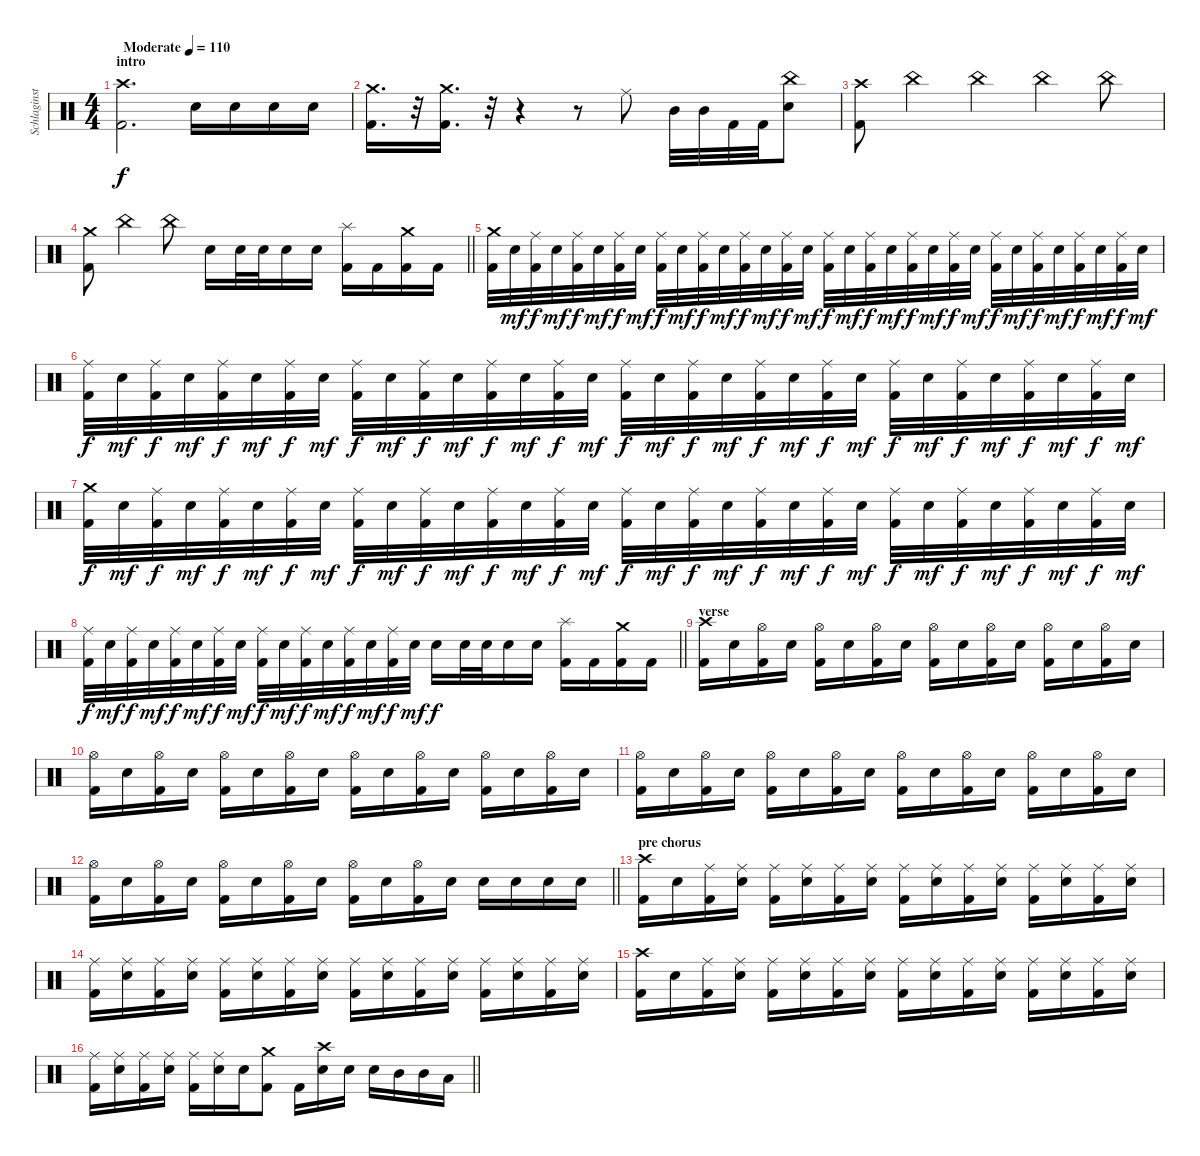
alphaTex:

\track ("Schlaginstrumente - Auswahl" "Schlaginst") {instrument percussion}
\staff {score}
\articulation defaults
\ts (4 4)
\section ("" "intro")
\tempo (110 "Moderate")
\clef neutral
\ks c
("Crash high (hit)" "Kick (hit) 2").2{d dy f} "Electric Snare (hit)".16 "Electric Snare (hit)".16 "Electric Snare (hit)".16 "Electric Snare (hit)".16 |
("Crash medium (hit)" "Kick (hit) 2").16{d} r.32{volume 0} ("Crash medium (hit)" "Kick (hit) 2").16{d volume 16} r.32{volume 0} r.4 r.8 "Ride (middle)".8{volume 16} "Mid Tom (hit)".32 "Mid Tom (hit)".32 "Kick (hit) 2".32 "Kick (hit) 2".32 ("China (hit)" "Electric Snare (hit)").8 |
("Crash high (hit)" "Kick (hit) 2").8 "China (hit)".4 "China (hit)".4 "China (hit)".4 "China (hit)".8 |
\barLineRight lightlight
("Crash medium (hit)" "Kick (hit) 2").8 "China (hit)".4 "China (hit)".8 "Electric Snare (hit)".16 "Electric Snare (hit)".32 "Electric Snare (hit)".32 "Electric Snare (hit)".16 "Electric Snare (hit)".16 ("Splash (hit)" "Kick (hit) 2").16 "Kick (hit) 2".16 ("Crash medium (hit)" "Kick (hit) 2").16 "Kick (hit) 2".16 |
\section ("" "")
("Crash medium (hit)" "Kick (hit) 2").32 "Electric Snare (hit)".32{dy mf} ("Ride (middle)" "Kick (hit) 2").32{dy f} "Electric Snare (hit)".32{dy mf} ("Ride (middle)" "Kick (hit) 2").32{dy f} "Electric Snare (hit)".32{dy mf} ("Ride (middle)" "Kick (hit) 2").32{dy f} "Electric Snare (hit)".32{dy mf} ("Ride (middle)" "Kick (hit) 2").32{dy f} "Electric Snare (hit)".32{dy mf} ("Ride (middle)" "Kick (hit) 2").32{dy f} "Electric Snare (hit)".32{dy mf} ("Ride (middle)" "Kick (hit) 2").32{dy f} "Electric Snare (hit)".32{dy mf} ("Ride (middle)" "Kick (hit) 2").32{dy f} "Electric Snare (hit)".32{dy mf} ("Ride (middle)" "Kick (hit) 2").32{dy f} "Electric Snare (hit)".32{dy mf} ("Ride (middle)" "Kick (hit) 2").32{dy f} "Electric Snare (hit)".32{dy mf} ("Ride (middle)" "Kick (hit) 2").32{dy f} "Electric Snare (hit)".32{dy mf} ("Ride (middle)" "Kick (hit) 2").32{dy f} "Electric Snare (hit)".32{dy mf} ("Ride (middle)" "Kick (hit) 2").32{dy f} "Electric Snare (hit)".32{dy mf} ("Ride (middle)" "Kick (hit) 2").32{dy f} "Electric Snare (hit)".32{dy mf} ("Ride (middle)" "Kick (hit) 2").32{dy f} "Electric Snare (hit)".32{dy mf} ("Ride (middle)" "Kick (hit) 2").32{dy f} "Electric Snare (hit)".32{dy mf} |
("Ride (middle)" "Kick (hit) 2").32{dy f} "Electric Snare (hit)".32{dy mf} ("Ride (middle)" "Kick (hit) 2").32{dy f} "Electric Snare (hit)".32{dy mf} ("Ride (middle)" "Kick (hit) 2").32{dy f} "Electric Snare (hit)".32{dy mf} ("Ride (middle)" "Kick (hit) 2").32{dy f} "Electric Snare (hit)".32{dy mf} ("Ride (middle)" "Kick (hit) 2").32{dy f} "Electric Snare (hit)".32{dy mf} ("Ride (middle)" "Kick (hit) 2").32{dy f} "Electric Snare (hit)".32{dy mf} ("Ride (middle)" "Kick (hit) 2").32{dy f} "Electric Snare (hit)".32{dy mf} ("Ride (middle)" "Kick (hit) 2").32{dy f} "Electric Snare (hit)".32{dy mf} ("Ride (middle)" "Kick (hit) 2").32{dy f} "Electric Snare (hit)".32{dy mf} ("Ride (middle)" "Kick (hit) 2").32{dy f} "Electric Snare (hit)".32{dy mf} ("Ride (middle)" "Kick (hit) 2").32{dy f} "Electric Snare (hit)".32{dy mf} ("Ride (middle)" "Kick (hit) 2").32{dy f} "Electric Snare (hit)".32{dy mf} ("Ride (middle)" "Kick (hit) 2").32{dy f} "Electric Snare (hit)".32{dy mf} ("Ride (middle)" "Kick (hit) 2").32{dy f} "Electric Snare (hit)".32{dy mf} ("Ride (middle)" "Kick (hit) 2").32{dy f} "Electric Snare (hit)".32{dy mf} ("Ride (middle)" "Kick (hit) 2").32{dy f} "Electric Snare (hit)".32{dy mf} |
("Crash medium (hit)" "Kick (hit) 2").32{dy f} "Electric Snare (hit)".32{dy mf} ("Ride (middle)" "Kick (hit) 2").32{dy f} "Electric Snare (hit)".32{dy mf} ("Ride (middle)" "Kick (hit) 2").32{dy f} "Electric Snare (hit)".32{dy mf} ("Ride (middle)" "Kick (hit) 2").32{dy f} "Electric Snare (hit)".32{dy mf} ("Ride (middle)" "Kick (hit) 2").32{dy f} "Electric Snare (hit)".32{dy mf} ("Ride (middle)" "Kick (hit) 2").32{dy f} "Electric Snare (hit)".32{dy mf} ("Ride (middle)" "Kick (hit) 2").32{dy f} "Electric Snare (hit)".32{dy mf} ("Ride (middle)" "Kick (hit) 2").32{dy f} "Electric Snare (hit)".32{dy mf} ("Ride (middle)" "Kick (hit) 2").32{dy f} "Electric Snare (hit)".32{dy mf} ("Ride (middle)" "Kick (hit) 2").32{dy f} "Electric Snare (hit)".32{dy mf} ("Ride (middle)" "Kick (hit) 2").32{dy f} "Electric Snare (hit)".32{dy mf} ("Ride (middle)" "Kick (hit) 2").32{dy f} "Electric Snare (hit)".32{dy mf} ("Ride (middle)" "Kick (hit) 2").32{dy f} "Electric Snare (hit)".32{dy mf} ("Ride (middle)" "Kick (hit) 2").32{dy f} "Electric Snare (hit)".32{dy mf} ("Ride (middle)" "Kick (hit) 2").32{dy f} "Electric Snare (hit)".32{dy mf} ("Ride (middle)" "Kick (hit) 2").32{dy f} "Electric Snare (hit)".32{dy mf} |
\barLineRight lightlight
("Ride (middle)" "Kick (hit) 2").32{dy f} "Electric Snare (hit)".32{dy mf} ("Ride (middle)" "Kick (hit) 2").32{dy f} "Electric Snare (hit)".32{dy mf} ("Ride (middle)" "Kick (hit) 2").32{dy f} "Electric Snare (hit)".32{dy mf} ("Ride (middle)" "Kick (hit) 2").32{dy f} "Electric Snare (hit)".32{dy mf} ("Ride (middle)" "Kick (hit) 2").32{dy f} "Electric Snare (hit)".32{dy mf} ("Ride (middle)" "Kick (hit) 2").32{dy f} "Electric Snare (hit)".32{dy mf} ("Ride (middle)" "Kick (hit) 2").32{dy f} "Electric Snare (hit)".32{dy mf} ("Ride (middle)" "Kick (hit) 2").32{dy f} "Electric Snare (hit)".32{dy mf} "Electric Snare (hit)".16{dy f} "Electric Snare (hit)".32 "Electric Snare (hit)".32 "Electric Snare (hit)".16 "Electric Snare (hit)".16 ("Splash (hit)" "Kick (hit) 2").16 "Kick (hit) 2".16 ("Crash medium (hit)" "Kick (hit) 2").16 "Kick (hit) 2".16 |
\section ("" "verse")
("Crash high (hit)" "Kick (hit) 2").16 "Electric Snare (hit)".16 ("Hi-Hat (open)" "Kick (hit) 2").16 "Electric Snare (hit)".16 ("Hi-Hat (open)" "Kick (hit) 2").16 "Electric Snare (hit)".16 ("Hi-Hat (open)" "Kick (hit) 2").16 "Electric Snare (hit)".16 ("Hi-Hat (open)" "Kick (hit) 2").16 "Electric Snare (hit)".16 ("Hi-Hat (open)" "Kick (hit) 2").16 "Electric Snare (hit)".16 ("Hi-Hat (open)" "Kick (hit) 2").16 "Electric Snare (hit)".16 ("Hi-Hat (open)" "Kick (hit) 2").16 "Electric Snare (hit)".16 |
("Hi-Hat (open)" "Kick (hit) 2").16 "Electric Snare (hit)".16 ("Hi-Hat (open)" "Kick (hit) 2").16 "Electric Snare (hit)".16 ("Hi-Hat (open)" "Kick (hit) 2").16 "Electric Snare (hit)".16 ("Hi-Hat (open)" "Kick (hit) 2").16 "Electric Snare (hit)".16 ("Hi-Hat (open)" "Kick (hit) 2").16 "Electric Snare (hit)".16 ("Hi-Hat (open)" "Kick (hit) 2").16 "Electric Snare (hit)".16 ("Hi-Hat (open)" "Kick (hit) 2").16 "Electric Snare (hit)".16 ("Hi-Hat (open)" "Kick (hit) 2").16 "Electric Snare (hit)".16 |
("Hi-Hat (open)" "Kick (hit) 2").16 "Electric Snare (hit)".16 ("Hi-Hat (open)" "Kick (hit) 2").16 "Electric Snare (hit)".16 ("Hi-Hat (open)" "Kick (hit) 2").16 "Electric Snare (hit)".16 ("Hi-Hat (open)" "Kick (hit) 2").16 "Electric Snare (hit)".16 ("Hi-Hat (open)" "Kick (hit) 2").16 "Electric Snare (hit)".16 ("Hi-Hat (open)" "Kick (hit) 2").16 "Electric Snare (hit)".16 ("Hi-Hat (open)" "Kick (hit) 2").16 "Electric Snare (hit)".16 ("Hi-Hat (open)" "Kick (hit) 2").16 "Electric Snare (hit)".16 |
\barLineRight lightlight
("Hi-Hat (open)" "Kick (hit) 2").16 "Electric Snare (hit)".16 ("Hi-Hat (open)" "Kick (hit) 2").16 "Electric Snare (hit)".16 ("Hi-Hat (open)" "Kick (hit) 2").16 "Electric Snare (hit)".16 ("Hi-Hat (open)" "Kick (hit) 2").16 "Electric Snare (hit)".16 ("Hi-Hat (open)" "Kick (hit) 2").16 "Electric Snare (hit)".16 ("Hi-Hat (open)" "Kick (hit) 2").16 "Electric Snare (hit)".16 "Electric Snare (hit)".16 "Electric Snare (hit)".16 "Electric Snare (hit)".16 "Electric Snare (hit)".16 |
\section ("" "pre chorus")
("Crash high (hit)" "Kick (hit) 2").16 "Electric Snare (hit)".16 ("Ride (middle)" "Kick (hit) 2").16 ("Ride (middle)" "Electric Snare (hit)").16 ("Ride (middle)" "Kick (hit) 2").16 ("Ride (middle)" "Electric Snare (hit)").16 ("Ride (middle)" "Kick (hit) 2").16 ("Ride (middle)" "Electric Snare (hit)").16 ("Ride (middle)" "Kick (hit) 2").16 ("Ride (middle)" "Electric Snare (hit)").16 ("Ride (middle)" "Kick (hit) 2").16 ("Ride (middle)" "Electric Snare (hit)").16 ("Ride (middle)" "Kick (hit) 2").16 ("Ride (middle)" "Electric Snare (hit)").16 ("Ride (middle)" "Kick (hit) 2").16 ("Ride (middle)" "Electric Snare (hit)").16 |
("Ride (middle)" "Kick (hit) 2").16 ("Ride (middle)" "Electric Snare (hit)").16 ("Ride (middle)" "Kick (hit) 2").16 ("Ride (middle)" "Electric Snare (hit)").16 ("Ride (middle)" "Kick (hit) 2").16 ("Ride (middle)" "Electric Snare (hit)").16 ("Ride (middle)" "Kick (hit) 2").16 ("Ride (middle)" "Electric Snare (hit)").16 ("Ride (middle)" "Kick (hit) 2").16 ("Ride (middle)" "Electric Snare (hit)").16 ("Ride (middle)" "Kick (hit) 2").16 ("Ride (middle)" "Electric Snare (hit)").16 ("Ride (middle)" "Kick (hit) 2").16 ("Ride (middle)" "Electric Snare (hit)").16 ("Ride (middle)" "Kick (hit) 2").16 ("Ride (middle)" "Electric Snare (hit)").16 |
("Crash high (hit)" "Kick (hit) 2").16 "Electric Snare (hit)".16 ("Ride (middle)" "Kick (hit) 2").16 ("Ride (middle)" "Electric Snare (hit)").16 ("Ride (middle)" "Kick (hit) 2").16 ("Ride (middle)" "Electric Snare (hit)").16 ("Ride (middle)" "Kick (hit) 2").16 ("Ride (middle)" "Electric Snare (hit)").16 ("Ride (middle)" "Kick (hit) 2").16 ("Ride (middle)" "Electric Snare (hit)").16 ("Ride (middle)" "Kick (hit) 2").16 ("Ride (middle)" "Electric Snare (hit)").16 ("Ride (middle)" "Kick (hit) 2").16 ("Ride (middle)" "Electric Snare (hit)").16 ("Ride (middle)" "Kick (hit) 2").16 ("Ride (middle)" "Electric Snare (hit)").16 |
\barLineRight lightlight
("Ride (middle)" "Kick (hit) 2").16 ("Ride (middle)" "Electric Snare (hit)").16 ("Ride (middle)" "Kick (hit) 2").16 ("Ride (middle)" "Electric Snare (hit)").16 ("Ride (middle)" "Kick (hit) 2").16 ("Ride (middle)" "Electric Snare (hit)").16 "Electric Snare (hit)".16 ("Crash medium (hit)" "Kick (hit) 2").8 "Kick (hit) 2".16 ("Crash high (hit)" "Electric Snare (hit)").16 "Electric Snare (hit)".16 "Electric Snare (hit)".16 "Mid Tom (hit)".16 "Mid Tom (hit)".16 "Low Tom (hit)".16
